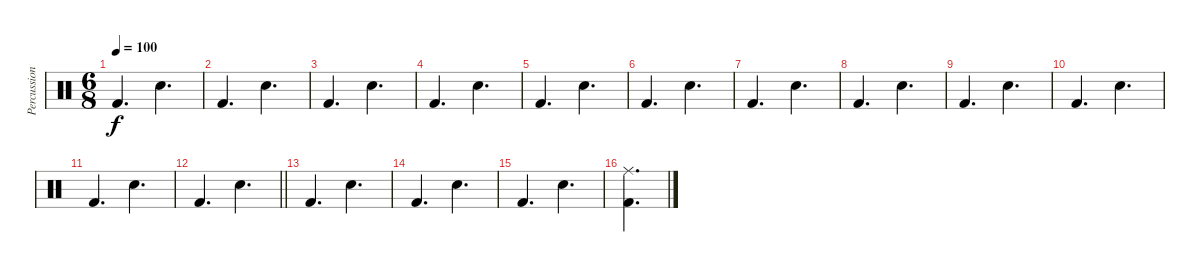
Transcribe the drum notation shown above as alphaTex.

\track ("Percussion" "Percussion") {instrument percussion}
\staff {score}
\articulation defaults
\ts (6 8)
\section ("" "")
\tempo 100
\clef neutral
\ks c "Kick (hit) 2".4{d dy f} "Snare (hit) 2".4{d}
|
"Kick (hit) 2".4{d} "Snare (hit) 2".4{d} |
"Kick (hit) 2".4{d} "Snare (hit) 2".4{d} |
"Kick (hit) 2".4{d} "Snare (hit) 2".4{d} |
"Kick (hit) 2".4{d} "Snare (hit) 2".4{d} |
"Kick (hit) 2".4{d} "Snare (hit) 2".4{d} |
"Kick (hit) 2".4{d} "Snare (hit) 2".4{d} |
"Kick (hit) 2".4{d} "Snare (hit) 2".4{d} |
"Kick (hit) 2".4{d} "Snare (hit) 2".4{d} |
"Kick (hit) 2".4{d} "Snare (hit) 2".4{d} |
"Kick (hit) 2".4{d} "Snare (hit) 2".4{d} |
\barLineRight lightlight "Kick (hit) 2".4{d} "Snare (hit) 2".4{d}
|
"Kick (hit) 2".4{d} "Snare (hit) 2".4{d} |
"Kick (hit) 2".4{d} "Snare (hit) 2".4{d} |
"Kick (hit) 2".4{d} "Snare (hit) 2".4{d} |
("Ride (middle)" "Kick (hit) 2").4{d}
